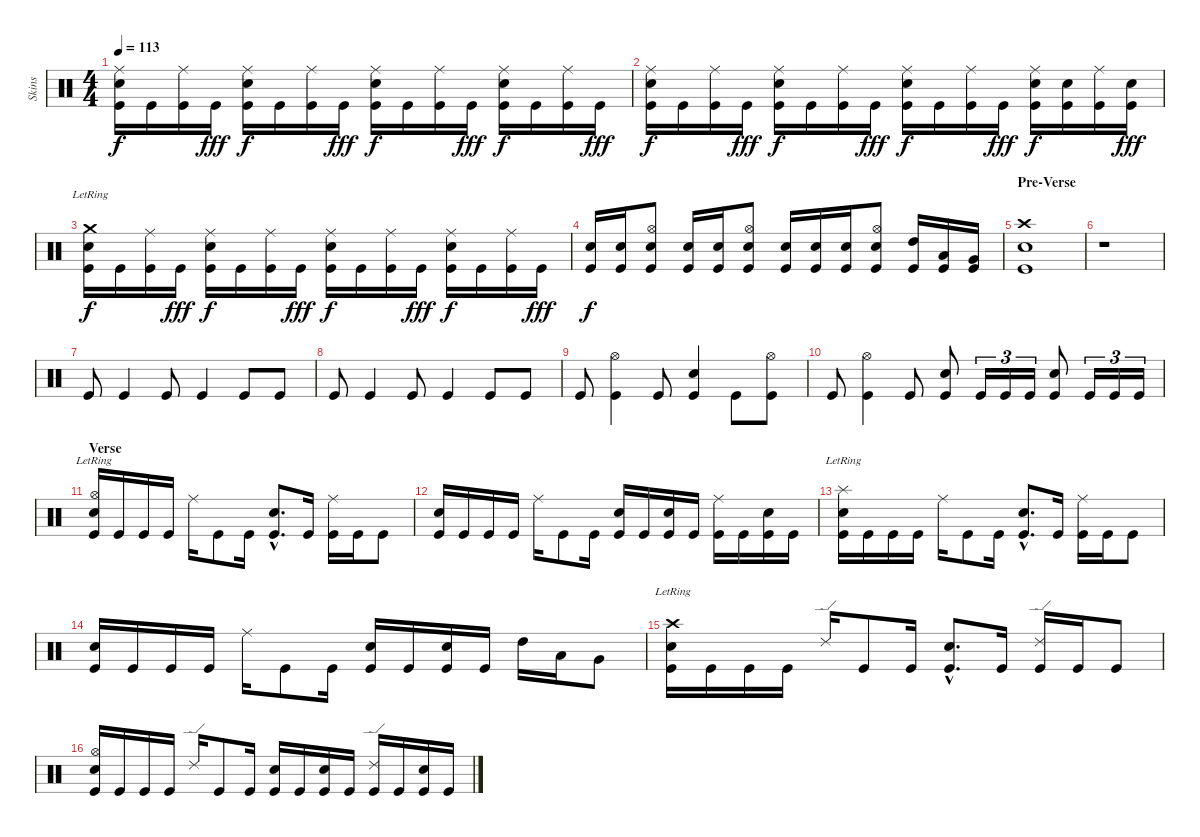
\track ("Skins" "Skins") {instrument percussion}
\staff {score}
\articulation defaults
\ts (4 4)
\tempo 113
\clef neutral
\ks c
("Ride (middle)" "Snare (hit) 2" "Kick (hit)").16{dy f} "Kick (hit)".16 ("Ride (middle)" "Kick (hit)").16 "Kick (hit)".16{dy fff} ("Ride (middle)" "Snare (hit) 2" "Kick (hit)").16{dy f} "Kick (hit)".16 ("Ride (middle)" "Kick (hit)").16 "Kick (hit)".16{dy fff} ("Ride (middle)" "Snare (hit) 2" "Kick (hit)").16{dy f} "Kick (hit)".16 ("Ride (middle)" "Kick (hit)").16 "Kick (hit)".16{dy fff} ("Ride (middle)" "Snare (hit) 2" "Kick (hit)").16{dy f} "Kick (hit)".16 ("Ride (middle)" "Kick (hit)").16 "Kick (hit)".16{dy fff} |
("Ride (middle)" "Snare (hit) 2" "Kick (hit)").16{dy f} "Kick (hit)".16 ("Ride (middle)" "Kick (hit)").16 "Kick (hit)".16{dy fff} ("Ride (middle)" "Snare (hit) 2" "Kick (hit)").16{dy f} "Kick (hit)".16 ("Ride (middle)" "Kick (hit)").16 "Kick (hit)".16{dy fff} ("Ride (middle)" "Snare (hit) 2" "Kick (hit)").16{dy f} "Kick (hit)".16 ("Ride (middle)" "Kick (hit)").16 "Kick (hit)".16{dy fff} ("Ride (middle)" "Snare (hit) 2" "Kick (hit)").16{dy f} ("Snare (hit) 2" "Kick (hit)").16 ("Ride (middle)" "Kick (hit)").16 ("Snare (hit) 2" "Kick (hit)").16{dy fff} |
("Snare (hit) 2" "Crash medium (hit)"{lr} "Kick (hit)").16{dy f} "Kick (hit)".16 ("Ride (middle)" "Kick (hit)").16 "Kick (hit)".16{dy fff} ("Ride (middle)" "Snare (hit) 2" "Kick (hit)").16{dy f} "Kick (hit)".16 ("Ride (middle)" "Kick (hit)").16 "Kick (hit)".16{dy fff} ("Ride (middle)" "Snare (hit) 2" "Kick (hit)").16{dy f} "Kick (hit)".16 ("Ride (middle)" "Kick (hit)").16 "Kick (hit)".16{dy fff} ("Ride (middle)" "Snare (hit) 2" "Kick (hit)").16{dy f} "Kick (hit)".16 ("Ride (middle)" "Kick (hit)").16 "Kick (hit)".16{dy fff} |
("Snare (hit) 2" "Kick (hit)").16{dy f} ("Snare (hit) 2" "Kick (hit)").16 ("Hi-Hat (open)" "Electric Snare (hit)" "Kick (hit)").8 ("Snare (hit) 2" "Kick (hit)").16 ("Snare (hit) 2" "Kick (hit)").16 ("Hi-Hat (open)" "Electric Snare (hit)" "Kick (hit)").8 ("Snare (hit) 2" "Kick (hit)").16 ("Snare (hit) 2" "Kick (hit)").16 ("Snare (hit) 2" "Kick (hit)").16 ("Hi-Hat (open)" "Electric Snare (hit)" "Kick (hit)").8 ("High Tom (hit)" "Kick (hit)").16 ("Low Tom (hit)" "Kick (hit)").16 ("Very Low Tom (hit)" "Kick (hit)").16 |
\section ("" "Pre-Verse")
("Crash high (hit)" "Electric Snare (hit)" "Kick (hit)").1 |
r.1{volume 5} |
"Kick (hit)".8{volume 14} "Kick (hit)".4 "Kick (hit)".8 "Kick (hit)".4 "Kick (hit)".8 "Kick (hit)".8 |
"Kick (hit)".8 "Kick (hit)".4 "Kick (hit)".8 "Kick (hit)".4 "Kick (hit)".8 "Kick (hit)".8 |
"Kick (hit)".8 ("Hi-Hat (open)" "Kick (hit)").4 "Kick (hit)".8 ("Snare (hit) 2" "Kick (hit)").4 "Kick (hit)".8 ("Hi-Hat (open)" "Kick (hit)").8 |
"Kick (hit)".8 ("Hi-Hat (open)" "Kick (hit)").4 "Kick (hit)".8 ("Snare (hit) 2" "Kick (hit)").8 "Kick (hit)".16{tu (3 2)} "Kick (hit)".16{tu (3 2)} "Kick (hit)".16{tu (3 2)} ("Snare (hit) 2" "Kick (hit)").8 "Kick (hit)".16{tu (3 2)} "Kick (hit)".16{tu (3 2)} "Kick (hit)".16{tu (3 2)} |
\section ("" "Verse")
("Hi-Hat (open)"{lr} "Electric Snare (hit)" "Kick (hit)").16 "Kick (hit)".16 "Kick (hit)".16 "Kick (hit)".16 "Ride (middle)".16 "Kick (hit)".8 "Kick (hit)".16 ("Electric Snare (hit)"{hac} "Kick (hit)"{hac}).8{d} "Kick (hit)".16 ("Ride (middle)" "Kick (hit)").16 "Kick (hit)".16 "Kick (hit)".8 |
("Electric Snare (hit)" "Kick (hit)").16 "Kick (hit)".16 "Kick (hit)".16 "Kick (hit)".16 "Ride (middle)".16 "Kick (hit)".8 "Kick (hit)".16 ("Snare (hit) 2" "Kick (hit)").16 "Kick (hit)".16 ("Snare (hit) 2" "Kick (hit)").16 "Kick (hit)".16 ("Ride (middle)" "Kick (hit)").16 "Kick (hit)".16 ("Snare (hit) 2" "Kick (hit)").16 "Kick (hit)".16 |
("Splash (hit)"{lr} "Electric Snare (hit)" "Kick (hit)").16 "Kick (hit)".16 "Kick (hit)".16 "Kick (hit)".16 "Ride (middle)".16 "Kick (hit)".8 "Kick (hit)".16 ("Electric Snare (hit)"{hac} "Kick (hit)"{hac}).8{d} "Kick (hit)".16 ("Ride (middle)" "Kick (hit)").16 "Kick (hit)".16 "Kick (hit)".8 |
("Electric Snare (hit)" "Kick (hit)").16 "Kick (hit)".16 "Kick (hit)".16 "Kick (hit)".16 "Ride (middle)".16 "Kick (hit)".8 "Kick (hit)".16 ("Snare (hit) 2" "Kick (hit)").16 "Kick (hit)".16 ("Snare (hit) 2" "Kick (hit)").16 "Kick (hit)".16 "High Tom (hit)".16 "Low Tom (hit)".16 "Very Low Tom (hit)".8 |
("Crash high (hit)"{lr} "Electric Snare (hit)" "Kick (hit)").16 "Kick (hit)".16 "Kick (hit)".16 "Kick (hit)".16 "Ride (edge) 2".16 "Kick (hit)".8 "Kick (hit)".16 ("Electric Snare (hit)"{hac} "Kick (hit)"{hac}).8{d} "Kick (hit)".16 ("Ride (edge) 2" "Kick (hit)").16 "Kick (hit)".16 "Kick (hit)".8 |
("Hi-Hat (open)" "Electric Snare (hit)" "Kick (hit)").16 "Kick (hit)".16 "Kick (hit)".16 "Kick (hit)".16 "Ride (edge) 2".16 "Kick (hit)".8 "Kick (hit)".16 ("Snare (hit) 2" "Kick (hit)").16 "Kick (hit)".16 ("Snare (hit) 2" "Kick (hit)").16 "Kick (hit)".16 ("Ride (edge) 2" "Kick (hit)").16 "Kick (hit)".16 ("Snare (hit) 2" "Kick (hit)").16 "Kick (hit)".16
